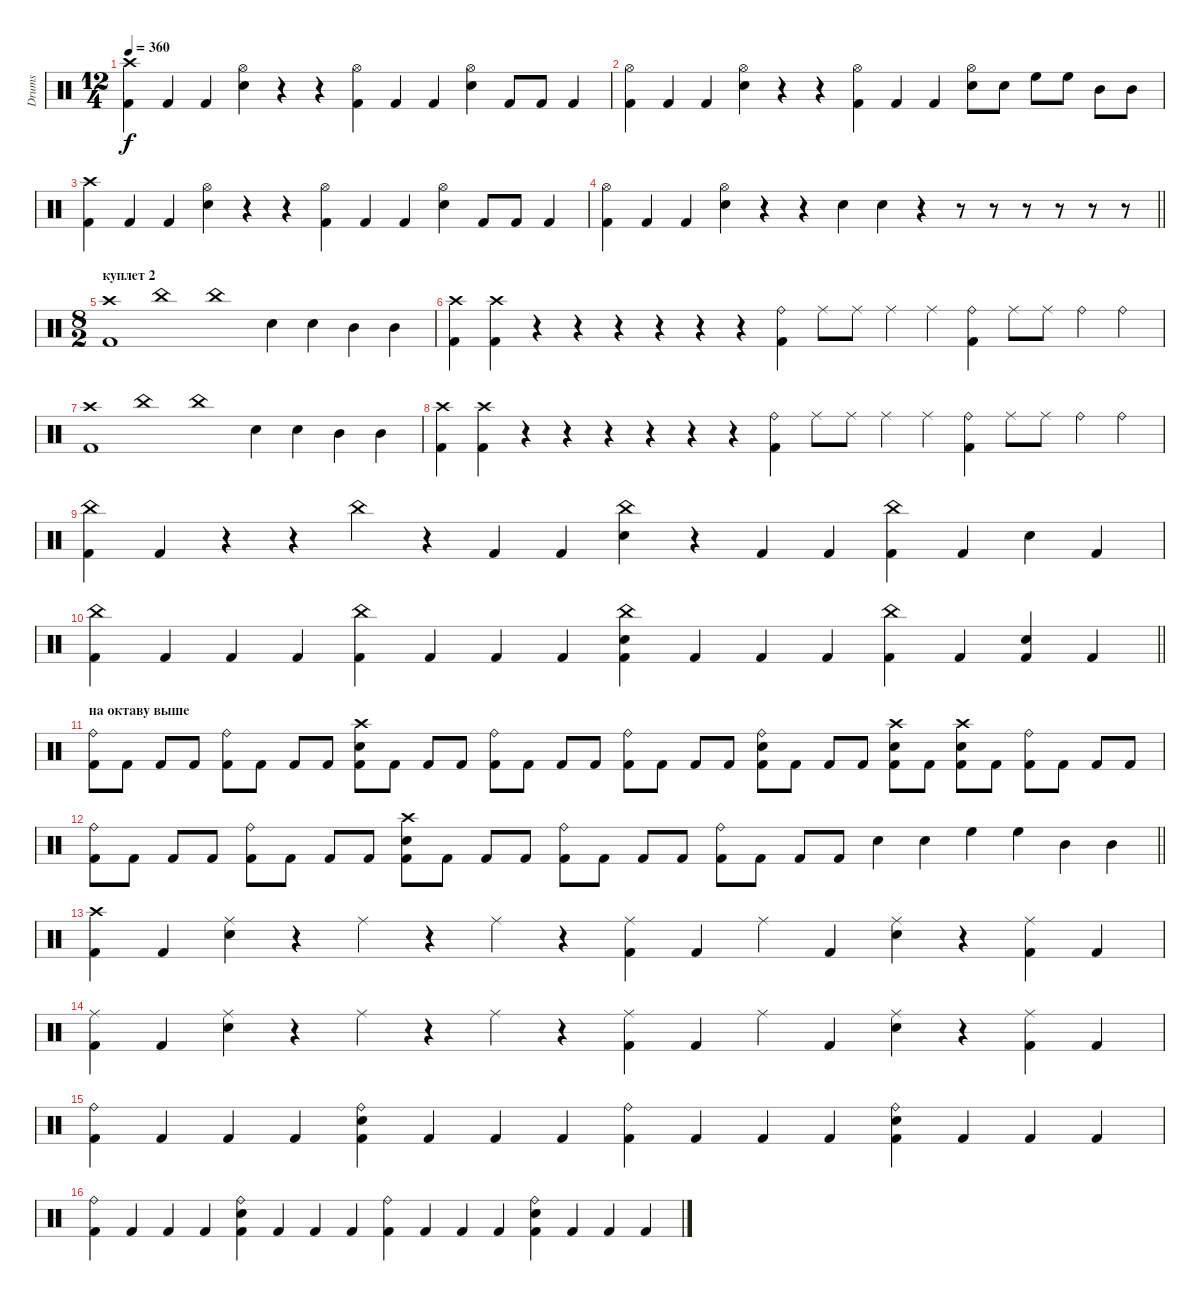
\track ("Drums" "Drums") {mute instrument percussion}
\staff {score}
\articulation defaults
\ts (12 4)
\tempo 360
\clef neutral
\ks c
("Crash high (hit)" "Kick (hit) 2").4{dy f} "Kick (hit) 2".4 "Kick (hit) 2".4 ("Hi-Hat (open)" "Snare (hit) 2").4 r.4 r.4 ("Hi-Hat (open)" "Kick (hit) 2").4 "Kick (hit) 2".4 "Kick (hit) 2".4 ("Hi-Hat (open)" "Snare (hit) 2").4 "Kick (hit) 2".8 "Kick (hit) 2".8 "Kick (hit) 2".4 |
("Hi-Hat (open)" "Kick (hit) 2").4 "Kick (hit) 2".4 "Kick (hit) 2".4 ("Hi-Hat (open)" "Snare (hit) 2").4 r.4 r.4 ("Hi-Hat (open)" "Kick (hit) 2").4 "Kick (hit) 2".4 "Kick (hit) 2".4 ("Hi-Hat (open)" "Snare (hit) 2").8 "Snare (hit) 2".8 "High Floor Tom (hit)".8 "High Floor Tom (hit)".8 "Mid Tom (hit)".8 "Mid Tom (hit)".8 |
("Crash high (hit)" "Kick (hit) 2").4 "Kick (hit) 2".4 "Kick (hit) 2".4 ("Hi-Hat (open)" "Snare (hit) 2").4 r.4 r.4 ("Hi-Hat (open)" "Kick (hit) 2").4 "Kick (hit) 2".4 "Kick (hit) 2".4 ("Hi-Hat (open)" "Snare (hit) 2").4 "Kick (hit) 2".8 "Kick (hit) 2".8 "Kick (hit) 2".4 |
\barLineRight lightlight
("Hi-Hat (open)" "Kick (hit) 2").4 "Kick (hit) 2".4 "Kick (hit) 2".4 ("Hi-Hat (open)" "Snare (hit) 2").4 r.4 r.4 "Snare (hit) 2".4 "Snare (hit) 2".4 r.4 r.8 r.8 r.8 r.8 r.8 r.8 |
\ts (8 2)
\section ("" "куплет 2")
("Crash high (hit)" "Kick (hit) 2").1 "China (hit)".1 "China (hit)".1 "Snare (hit) 2".4 "Snare (hit) 2".4 "Mid Tom (hit)".4 "Mid Tom (hit)".4 |
("Crash high (hit)" "Kick (hit) 2").4 ("Crash high (hit)" "Kick (hit) 2").4 r.4 r.4 r.4 r.4 r.4 r.4 ("Ride (bell)" "Kick (hit) 2").4 "Ride (middle)".8 "Ride (middle)".8 "Ride (middle)".4 "Ride (middle)".4 ("Ride (bell)" "Kick (hit) 2").4 "Ride (middle)".8 "Ride (middle)".8 "Ride (bell)".4 "Ride (bell)".4 |
("Crash high (hit)" "Kick (hit) 2").1 "China (hit)".1 "China (hit)".1 "Snare (hit) 2".4 "Snare (hit) 2".4 "Mid Tom (hit)".4 "Mid Tom (hit)".4 |
("Crash high (hit)" "Kick (hit) 2").4 ("Crash high (hit)" "Kick (hit) 2").4 r.4 r.4 r.4 r.4 r.4 r.4 ("Ride (bell)" "Kick (hit) 2").4 "Ride (middle)".8 "Ride (middle)".8 "Ride (middle)".4 "Ride (middle)".4 ("Ride (bell)" "Kick (hit) 2").4 "Ride (middle)".8 "Ride (middle)".8 "Ride (bell)".4 "Ride (bell)".4 |
("Kick (hit) 2" "China (hit)").4 "Kick (hit) 2".4 r.4 r.4 "China (hit)".4 r.4 "Kick (hit) 2".4 "Kick (hit) 2".4 ("Snare (hit) 2" "China (hit)").4 r.4 "Kick (hit) 2".4 "Kick (hit) 2".4 ("Kick (hit) 2" "China (hit)").4 "Kick (hit) 2".4 "Snare (hit) 2".4 "Kick (hit) 2".4 |
\barLineRight lightlight
("Kick (hit) 2" "China (hit)").4 "Kick (hit) 2".4 "Kick (hit) 2".4 "Kick (hit) 2".4 ("Kick (hit) 2" "China (hit)").4 "Kick (hit) 2".4 "Kick (hit) 2".4 "Kick (hit) 2".4 ("Kick (hit) 2" "Snare (hit) 2" "China (hit)").4 "Kick (hit) 2".4 "Kick (hit) 2".4 "Kick (hit) 2".4 ("Kick (hit) 2" "China (hit)").4 "Kick (hit) 2".4 ("Kick (hit) 2" "Snare (hit) 2").4 "Kick (hit) 2".4 |
\section ("" "на октаву выше")
("Ride (bell)" "Kick (hit) 2").8 "Kick (hit) 2".8 "Kick (hit) 2".8 "Kick (hit) 2".8 ("Ride (bell)" "Kick (hit) 2").8 "Kick (hit) 2".8 "Kick (hit) 2".8 "Kick (hit) 2".8 ("Crash high (hit)" "Snare (hit) 2" "Kick (hit) 2").8 "Kick (hit) 2".8 "Kick (hit) 2".8 "Kick (hit) 2".8 ("Ride (bell)" "Kick (hit) 2").8 "Kick (hit) 2".8 "Kick (hit) 2".8 "Kick (hit) 2".8 ("Ride (bell)" "Kick (hit) 2").8 "Kick (hit) 2".8 "Kick (hit) 2".8 "Kick (hit) 2".8 ("Ride (bell)" "Snare (hit) 2" "Kick (hit) 2").8 "Kick (hit) 2".8 "Kick (hit) 2".8 "Kick (hit) 2".8 ("Crash high (hit)" "Snare (hit) 2" "Kick (hit) 2").8 "Kick (hit) 2".8 ("Crash high (hit)" "Snare (hit) 2" "Kick (hit) 2").8 "Kick (hit) 2".8 ("Ride (bell)" "Kick (hit) 2").8 "Kick (hit) 2".8 "Kick (hit) 2".8 "Kick (hit) 2".8 |
\barLineRight lightlight
("Ride (bell)" "Kick (hit) 2").8 "Kick (hit) 2".8 "Kick (hit) 2".8 "Kick (hit) 2".8 ("Ride (bell)" "Kick (hit) 2").8 "Kick (hit) 2".8 "Kick (hit) 2".8 "Kick (hit) 2".8 ("Crash high (hit)" "Snare (hit) 2" "Kick (hit) 2").8 "Kick (hit) 2".8 "Kick (hit) 2".8 "Kick (hit) 2".8 ("Ride (bell)" "Kick (hit) 2").8 "Kick (hit) 2".8 "Kick (hit) 2".8 "Kick (hit) 2".8 ("Ride (bell)" "Kick (hit) 2").8 "Kick (hit) 2".8 "Kick (hit) 2".8 "Kick (hit) 2".8 "Snare (hit) 2".4 "Snare (hit) 2".4 "High Floor Tom (hit)".4 "High Floor Tom (hit)".4 "Mid Tom (hit)".4 "Mid Tom (hit)".4 |
("Crash high (hit)" "Kick (hit) 2").4 "Kick (hit) 2".4 ("Ride (middle)" "Snare (hit) 2").4 r.4 "Ride (middle)".4 r.4 "Ride (middle)".4 r.4 ("Ride (middle)" "Kick (hit) 2").4 "Kick (hit) 2".4 "Ride (middle)".4 "Kick (hit) 2".4 ("Ride (middle)" "Snare (hit) 2").4 r.4 ("Ride (middle)" "Kick (hit) 2").4 "Kick (hit) 2".4 |
("Ride (middle)" "Kick (hit) 2").4 "Kick (hit) 2".4 ("Ride (middle)" "Snare (hit) 2").4 r.4 "Ride (middle)".4 r.4 "Ride (middle)".4 r.4 ("Ride (middle)" "Kick (hit) 2").4 "Kick (hit) 2".4 "Ride (middle)".4 "Kick (hit) 2".4 ("Ride (middle)" "Snare (hit) 2").4 r.4 ("Ride (middle)" "Kick (hit) 2").4 "Kick (hit) 2".4 |
("Ride (bell)" "Kick (hit) 2").4 "Kick (hit) 2".4 "Kick (hit) 2".4 "Kick (hit) 2".4 ("Ride (bell)" "Snare (hit) 2" "Kick (hit) 2").4 "Kick (hit) 2".4 "Kick (hit) 2".4 "Kick (hit) 2".4 ("Ride (bell)" "Kick (hit) 2").4 "Kick (hit) 2".4 "Kick (hit) 2".4 "Kick (hit) 2".4 ("Ride (bell)" "Snare (hit) 2" "Kick (hit) 2").4 "Kick (hit) 2".4 "Kick (hit) 2".4 "Kick (hit) 2".4 |
("Ride (bell)" "Kick (hit) 2").4 "Kick (hit) 2".4 "Kick (hit) 2".4 "Kick (hit) 2".4 ("Ride (bell)" "Snare (hit) 2" "Kick (hit) 2").4 "Kick (hit) 2".4 "Kick (hit) 2".4 "Kick (hit) 2".4 ("Ride (bell)" "Kick (hit) 2").4 "Kick (hit) 2".4 "Kick (hit) 2".4 "Kick (hit) 2".4 ("Ride (bell)" "Snare (hit) 2" "Kick (hit) 2").4 "Kick (hit) 2".4 "Kick (hit) 2".4 "Kick (hit) 2".4
